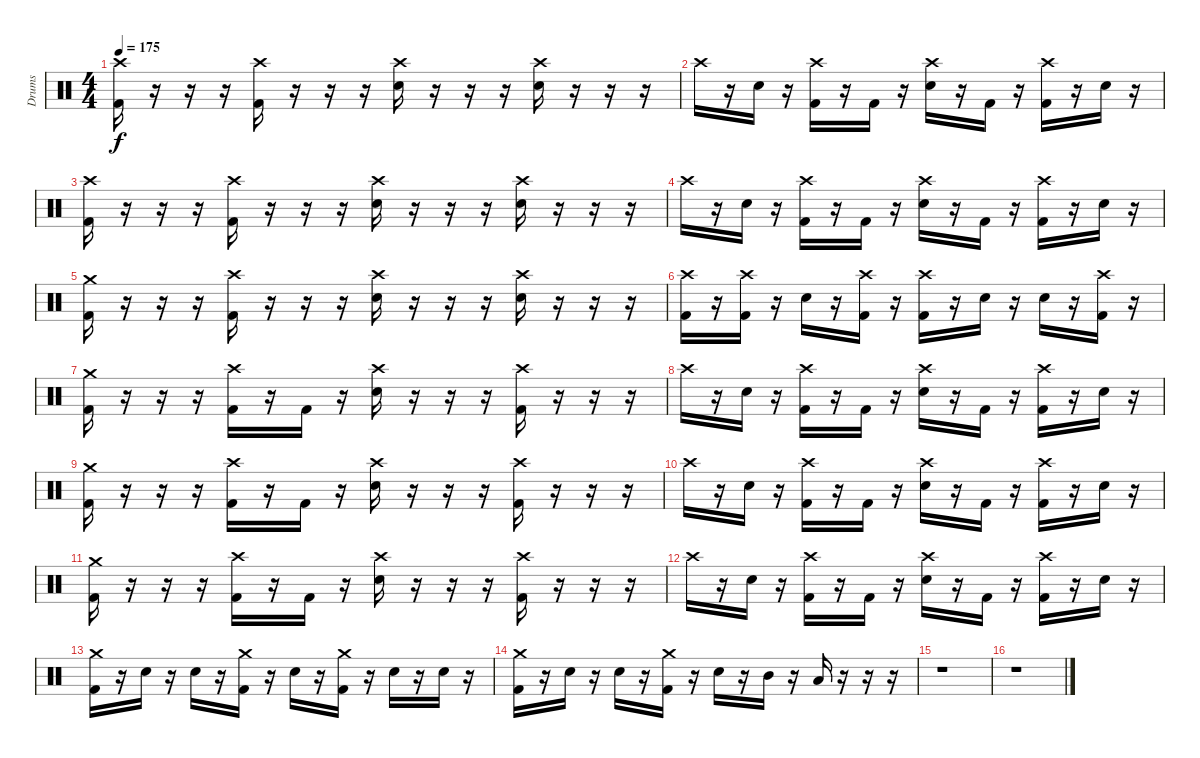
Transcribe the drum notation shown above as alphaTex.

\track ("Drums" "Drums") {instrument percussion}
\staff {score}
\articulation defaults
\ts (4 4)
\tempo 175
\clef neutral
\ks c
("Crash high (hit)" "Kick (hit) 2").16{dy f} r.16 r.16 r.16 ("Crash high (hit)" "Kick (hit) 2").16 r.16 r.16 r.16 ("Crash high (hit)" "Snare (hit) 2").16 r.16 r.16 r.16 ("Crash high (hit)" "Snare (hit) 2").16 r.16 r.16 r.16 |
"Crash high (hit)".16 r.16 "Snare (hit) 2".16 r.16 ("Crash high (hit)" "Kick (hit) 2").16 r.16 "Kick (hit) 2".16 r.16 ("Crash high (hit)" "Snare (hit) 2").16 r.16 "Kick (hit) 2".16 r.16 ("Crash high (hit)" "Kick (hit) 2").16 r.16 "Snare (hit) 2".16 r.16 |
("Crash high (hit)" "Kick (hit) 2").16 r.16 r.16 r.16 ("Crash high (hit)" "Kick (hit) 2").16 r.16 r.16 r.16 ("Crash high (hit)" "Snare (hit) 2").16 r.16 r.16 r.16 ("Crash high (hit)" "Snare (hit) 2").16 r.16 r.16 r.16 |
"Crash high (hit)".16 r.16 "Snare (hit) 2".16 r.16 ("Crash high (hit)" "Kick (hit) 2").16 r.16 "Kick (hit) 2".16 r.16 ("Crash high (hit)" "Snare (hit) 2").16 r.16 "Kick (hit) 2".16 r.16 ("Crash high (hit)" "Kick (hit) 2").16 r.16 "Snare (hit) 2".16 r.16 |
("Crash medium (hit)" "Kick (hit) 2").16 r.16 r.16 r.16 ("Crash high (hit)" "Kick (hit) 2").16 r.16 r.16 r.16 ("Crash high (hit)" "Snare (hit) 2").16 r.16 r.16 r.16 ("Crash high (hit)" "Snare (hit) 2").16 r.16 r.16 r.16 |
("Crash high (hit)" "Kick (hit) 2").16 r.16 ("Crash high (hit)" "Kick (hit) 2").16 r.16 "Snare (hit) 2".16 r.16 ("Crash high (hit)" "Kick (hit) 2").16 r.16 ("Crash high (hit)" "Kick (hit) 2").16 r.16 "Snare (hit) 2".16 r.16 "Snare (hit) 2".16 r.16 ("Crash high (hit)" "Kick (hit) 2").16 r.16 |
("Crash medium (hit)" "Kick (hit) 2").16 r.16 r.16 r.16 ("Crash high (hit)" "Kick (hit) 2").16 r.16 "Kick (hit) 2".16 r.16 ("Crash high (hit)" "Snare (hit) 2").16 r.16 r.16 r.16 ("Crash high (hit)" "Kick (hit) 2").16 r.16 r.16 r.16 |
"Crash high (hit)".16 r.16 "Snare (hit) 2".16 r.16 ("Crash high (hit)" "Kick (hit) 2").16 r.16 "Kick (hit) 2".16 r.16 ("Crash high (hit)" "Snare (hit) 2").16 r.16 "Kick (hit) 2".16 r.16 ("Crash high (hit)" "Kick (hit) 2").16 r.16 "Snare (hit) 2".16 r.16 |
("Crash medium (hit)" "Kick (hit) 2").16 r.16 r.16 r.16 ("Crash high (hit)" "Kick (hit) 2").16 r.16 "Kick (hit) 2".16 r.16 ("Crash high (hit)" "Snare (hit) 2").16 r.16 r.16 r.16 ("Crash high (hit)" "Kick (hit) 2").16 r.16 r.16 r.16 |
"Crash high (hit)".16 r.16 "Snare (hit) 2".16 r.16 ("Crash high (hit)" "Kick (hit) 2").16 r.16 "Kick (hit) 2".16 r.16 ("Crash high (hit)" "Snare (hit) 2").16 r.16 "Kick (hit) 2".16 r.16 ("Crash high (hit)" "Kick (hit) 2").16 r.16 "Snare (hit) 2".16 r.16 |
("Crash medium (hit)" "Kick (hit) 2").16 r.16 r.16 r.16 ("Crash high (hit)" "Kick (hit) 2").16 r.16 "Kick (hit) 2".16 r.16 ("Crash high (hit)" "Snare (hit) 2").16 r.16 r.16 r.16 ("Crash high (hit)" "Kick (hit) 2").16 r.16 r.16 r.16 |
"Crash high (hit)".16 r.16 "Snare (hit) 2".16 r.16 ("Crash high (hit)" "Kick (hit) 2").16 r.16 "Kick (hit) 2".16 r.16 ("Crash high (hit)" "Snare (hit) 2").16 r.16 "Kick (hit) 2".16 r.16 ("Crash high (hit)" "Kick (hit) 2").16 r.16 "Snare (hit) 2".16 r.16 |
("Crash medium (hit)" "Kick (hit) 2").16 r.16 "Snare (hit) 2".16 r.16 "Snare (hit) 2".16 r.16 ("Crash medium (hit)" "Kick (hit) 2").16 r.16 "Snare (hit) 2".16 r.16 ("Crash medium (hit)" "Kick (hit) 2").16 r.16 "Snare (hit) 2".16 r.16 "Snare (hit) 2".16 r.16 |
("Crash medium (hit)" "Kick (hit) 2").16 r.16 "Snare (hit) 2".16 r.16 "Snare (hit) 2".16 r.16 ("Crash medium (hit)" "Kick (hit) 2").16 r.16 "Snare (hit) 2".16 r.16 "Mid Tom (hit)".16 r.16 "Low Floor Tom (hit)".16 r.16 r.16 r.16 |
r.1 |
r.1
